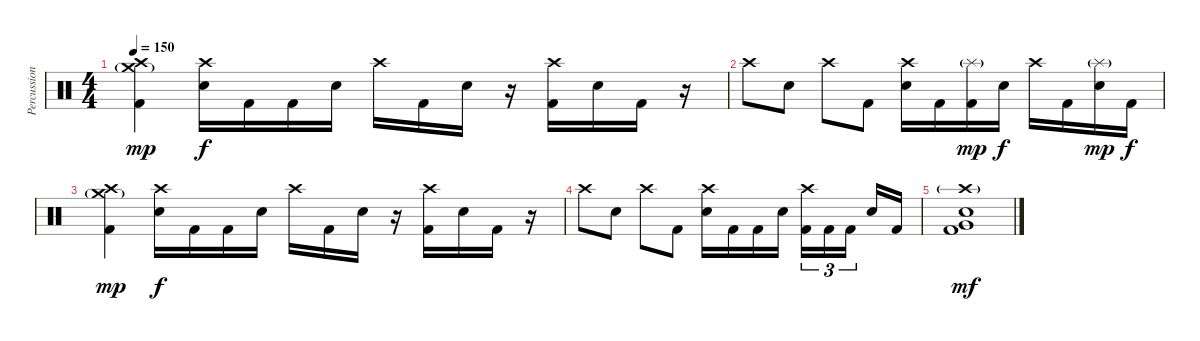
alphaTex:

\track ("Percussion" "Percussion") {instrument percussion}
\staff {score}
\articulation defaults
\ts (4 4)
\tempo 150
\clef neutral
\ks c
("Crash high (hit)" "Crash medium (hit)"{g} "Kick (hit) 2").4{dy mp} ("Crash high (hit)" "Snare (hit) 2").16{dy f} "Kick (hit) 2".16 "Kick (hit) 2".16 "Snare (hit) 2".16 "Crash high (hit)".16 "Kick (hit) 2".16 "Snare (hit) 2".16 r.16 ("Crash high (hit)" "Kick (hit) 2").16 "Snare (hit) 2".16 "Kick (hit) 2".16 r.16 |
"Crash high (hit)".8 "Snare (hit) 2".8 "Crash high (hit)".8 "Kick (hit) 2".8 ("Crash high (hit)" "Snare (hit) 2").16 "Kick (hit) 2".16 ("Splash (hit)"{g} "Kick (hit) 2").16{dy mp} "Snare (hit) 2".16{dy f} "Crash high (hit)".16 "Kick (hit) 2".16 ("Splash (hit)"{g} "Snare (hit) 2").16{dy mp} "Kick (hit) 2".16{dy f} |
("Crash high (hit)" "Crash medium (hit)"{g} "Kick (hit) 2").4{dy mp} ("Crash high (hit)" "Snare (hit) 2").16{dy f} "Kick (hit) 2".16 "Kick (hit) 2".16 "Snare (hit) 2".16 "Crash high (hit)".16 "Kick (hit) 2".16 "Snare (hit) 2".16 r.16 ("Crash high (hit)" "Kick (hit) 2").16 "Snare (hit) 2".16 "Kick (hit) 2".16 r.16 |
"Crash high (hit)".8 "Snare (hit) 2".8 "Crash high (hit)".8 "Kick (hit) 2".8 ("Crash high (hit)" "Snare (hit) 2").16 "Kick (hit) 2".16 "Kick (hit) 2".16 "Snare (hit) 2".16 ("Crash high (hit)" "Kick (hit) 2").16{tu (3 2)} "Kick (hit) 2".16{tu (3 2)} "Kick (hit) 2".16{tu (3 2) beam splitsecondary} "Snare (hit) 2".16 "Kick (hit) 2".16 |
("Crash high (hit)"{g} "Snare (hit) 2" "Very Low Tom (hit)" "Kick (hit) 2").1{dy mf}
